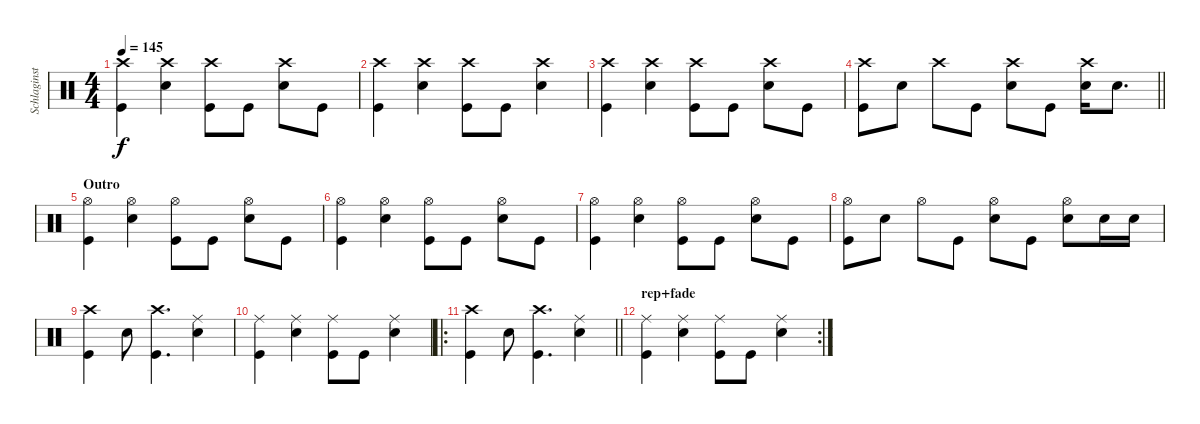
\track ("Schlaginstrumente - Auswahl" "Schlaginst") {instrument percussion}
\staff {score}
\articulation defaults
\ts (4 4)
\tempo 145
\clef neutral
\ks c
("Kick (hit)" "Crash high (hit)").4{dy f} ("Snare (hit) 2" "Crash high (hit)").4 ("Kick (hit)" "Crash high (hit)").8 "Kick (hit)".8 ("Snare (hit) 2" "Crash high (hit)").8 "Kick (hit)".8 |
("Kick (hit)" "Crash high (hit)").4 ("Snare (hit) 2" "Crash high (hit)").4 ("Kick (hit)" "Crash high (hit)").8 "Kick (hit)".8 ("Snare (hit) 2" "Crash high (hit)").4 |
("Kick (hit)" "Crash high (hit)").4 ("Snare (hit) 2" "Crash high (hit)").4 ("Kick (hit)" "Crash high (hit)").8 "Kick (hit)".8 ("Snare (hit) 2" "Crash high (hit)").8 "Kick (hit)".8 |
\barLineRight lightlight
("Kick (hit)" "Crash high (hit)").8 "Snare (hit) 2".8 "Crash high (hit)".8 "Kick (hit)".8 ("Snare (hit) 2" "Crash high (hit)").8 "Kick (hit)".8 ("Snare (hit) 2" "Crash high (hit)").16 "Snare (hit) 2".8{d} |
\section ("" "Outro")
("Kick (hit)" "Hi-Hat (open)").4 ("Snare (hit) 2" "Hi-Hat (open)").4 ("Kick (hit)" "Hi-Hat (open)").8 "Kick (hit)".8 ("Snare (hit) 2" "Hi-Hat (open)").8 "Kick (hit)".8 |
("Kick (hit)" "Hi-Hat (open)").4 ("Snare (hit) 2" "Hi-Hat (open)").4 ("Kick (hit)" "Hi-Hat (open)").8 "Kick (hit)".8 ("Snare (hit) 2" "Hi-Hat (open)").8 "Kick (hit)".8 |
("Kick (hit)" "Hi-Hat (open)").4 ("Snare (hit) 2" "Hi-Hat (open)").4 ("Kick (hit)" "Hi-Hat (open)").8 "Kick (hit)".8 ("Snare (hit) 2" "Hi-Hat (open)").8 "Kick (hit)".8 |
("Kick (hit)" "Hi-Hat (open)").8 "Snare (hit) 2".8 "Hi-Hat (open)".8 "Kick (hit)".8 ("Snare (hit) 2" "Hi-Hat (open)").8 "Kick (hit)".8 ("Snare (hit) 2" "Hi-Hat (open)").8 "Snare (hit) 2".16 "Snare (hit) 2".16 |
("Kick (hit)" "Crash high (hit)").4 "Snare (hit) 2".8 ("Crash high (hit)" "Kick (hit)").4{d} ("Snare (hit) 2" "Ride (middle)").4 |
("Kick (hit)" "Ride (middle)").4 ("Snare (hit) 2" "Ride (middle)").4 ("Kick (hit)" "Ride (middle)").8 "Kick (hit)".8 ("Snare (hit) 2" "Ride (middle)").4 |
\ro
\barLineRight lightlight
("Kick (hit)" "Crash high (hit)").4 "Snare (hit) 2".8 ("Crash high (hit)" "Kick (hit)").4{d} ("Snare (hit) 2" "Ride (middle)").4 |
\rc 2
\section ("" "rep+fade")
("Kick (hit)" "Ride (middle)").4 ("Snare (hit) 2" "Ride (middle)").4 ("Kick (hit)" "Ride (middle)").8 "Kick (hit)".8 ("Snare (hit) 2" "Ride (middle)").4
